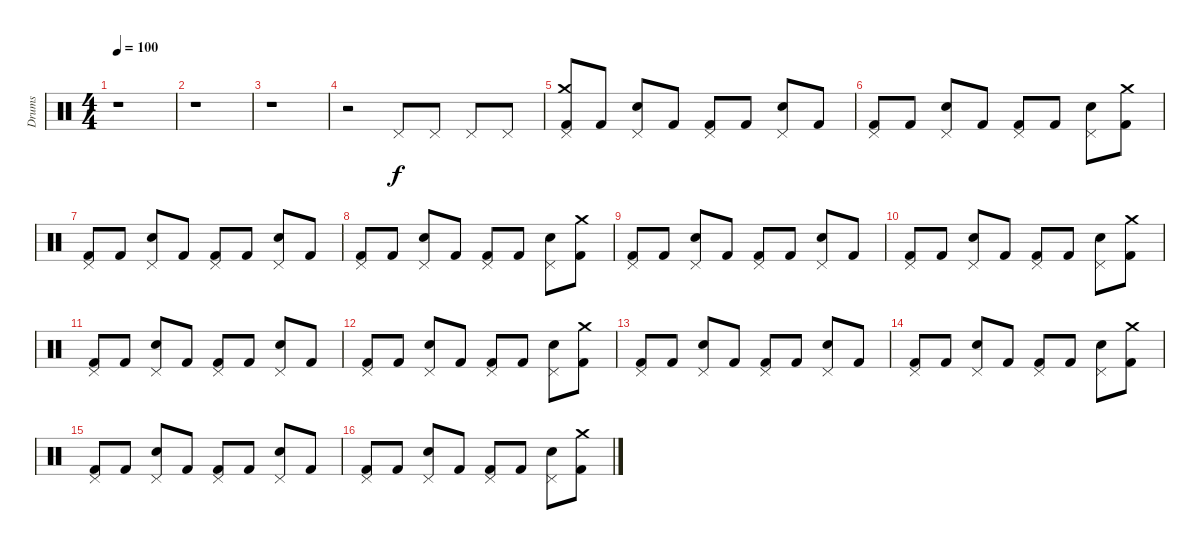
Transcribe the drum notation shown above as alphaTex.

\track ("Drums" "Drums") {instrument percussion}
\staff {score}
\articulation defaults
\ts (4 4)
\tempo 100
\clef neutral
\ks c
r.1{dy f} |
r.1 |
r.1 |
r.2 "Pedal Hi-Hat (hit)".8 "Pedal Hi-Hat (hit)".8 "Pedal Hi-Hat (hit)".8 "Pedal Hi-Hat (hit)".8 |
("Crash medium (hit)" "Pedal Hi-Hat (hit)" "Kick (hit) 2").8 "Kick (hit) 2".8 ("Pedal Hi-Hat (hit)" "Snare (hit) 2").8 "Kick (hit) 2".8 ("Pedal Hi-Hat (hit)" "Kick (hit) 2").8 "Kick (hit) 2".8 ("Pedal Hi-Hat (hit)" "Snare (hit) 2").8 "Kick (hit) 2".8 |
("Pedal Hi-Hat (hit)" "Kick (hit) 2").8 "Kick (hit) 2".8 ("Pedal Hi-Hat (hit)" "Snare (hit) 2").8 "Kick (hit) 2".8 ("Pedal Hi-Hat (hit)" "Kick (hit) 2").8 "Kick (hit) 2".8 ("Pedal Hi-Hat (hit)" "Snare (hit) 2").8 ("Crash medium (hit)" "Kick (hit) 2").8 |
("Pedal Hi-Hat (hit)" "Kick (hit) 2").8 "Kick (hit) 2".8 ("Pedal Hi-Hat (hit)" "Snare (hit) 2").8 "Kick (hit) 2".8 ("Pedal Hi-Hat (hit)" "Kick (hit) 2").8 "Kick (hit) 2".8 ("Pedal Hi-Hat (hit)" "Snare (hit) 2").8 "Kick (hit) 2".8 |
("Pedal Hi-Hat (hit)" "Kick (hit) 2").8 "Kick (hit) 2".8 ("Pedal Hi-Hat (hit)" "Snare (hit) 2").8 "Kick (hit) 2".8 ("Pedal Hi-Hat (hit)" "Kick (hit) 2").8 "Kick (hit) 2".8 ("Pedal Hi-Hat (hit)" "Snare (hit) 2").8 ("Crash medium (hit)" "Kick (hit) 2").8 |
("Pedal Hi-Hat (hit)" "Kick (hit) 2").8 "Kick (hit) 2".8 ("Pedal Hi-Hat (hit)" "Snare (hit) 2").8 "Kick (hit) 2".8 ("Pedal Hi-Hat (hit)" "Kick (hit) 2").8 "Kick (hit) 2".8 ("Pedal Hi-Hat (hit)" "Snare (hit) 2").8 "Kick (hit) 2".8 |
("Pedal Hi-Hat (hit)" "Kick (hit) 2").8 "Kick (hit) 2".8 ("Pedal Hi-Hat (hit)" "Snare (hit) 2").8 "Kick (hit) 2".8 ("Pedal Hi-Hat (hit)" "Kick (hit) 2").8 "Kick (hit) 2".8 ("Pedal Hi-Hat (hit)" "Snare (hit) 2").8 ("Crash medium (hit)" "Kick (hit) 2").8 |
("Pedal Hi-Hat (hit)" "Kick (hit) 2").8 "Kick (hit) 2".8 ("Pedal Hi-Hat (hit)" "Snare (hit) 2").8 "Kick (hit) 2".8 ("Pedal Hi-Hat (hit)" "Kick (hit) 2").8 "Kick (hit) 2".8 ("Pedal Hi-Hat (hit)" "Snare (hit) 2").8 "Kick (hit) 2".8 |
("Pedal Hi-Hat (hit)" "Kick (hit) 2").8 "Kick (hit) 2".8 ("Pedal Hi-Hat (hit)" "Snare (hit) 2").8 "Kick (hit) 2".8 ("Pedal Hi-Hat (hit)" "Kick (hit) 2").8 "Kick (hit) 2".8 ("Pedal Hi-Hat (hit)" "Snare (hit) 2").8 ("Crash medium (hit)" "Kick (hit) 2").8 |
("Pedal Hi-Hat (hit)" "Kick (hit) 2").8 "Kick (hit) 2".8 ("Pedal Hi-Hat (hit)" "Snare (hit) 2").8 "Kick (hit) 2".8 ("Pedal Hi-Hat (hit)" "Kick (hit) 2").8 "Kick (hit) 2".8 ("Pedal Hi-Hat (hit)" "Snare (hit) 2").8 "Kick (hit) 2".8 |
("Pedal Hi-Hat (hit)" "Kick (hit) 2").8 "Kick (hit) 2".8 ("Pedal Hi-Hat (hit)" "Snare (hit) 2").8 "Kick (hit) 2".8 ("Pedal Hi-Hat (hit)" "Kick (hit) 2").8 "Kick (hit) 2".8 ("Pedal Hi-Hat (hit)" "Snare (hit) 2").8 ("Crash medium (hit)" "Kick (hit) 2").8 |
("Pedal Hi-Hat (hit)" "Kick (hit) 2").8 "Kick (hit) 2".8 ("Pedal Hi-Hat (hit)" "Snare (hit) 2").8 "Kick (hit) 2".8 ("Pedal Hi-Hat (hit)" "Kick (hit) 2").8 "Kick (hit) 2".8 ("Pedal Hi-Hat (hit)" "Snare (hit) 2").8 "Kick (hit) 2".8 |
("Pedal Hi-Hat (hit)" "Kick (hit) 2").8 "Kick (hit) 2".8 ("Pedal Hi-Hat (hit)" "Snare (hit) 2").8 "Kick (hit) 2".8 ("Pedal Hi-Hat (hit)" "Kick (hit) 2").8 "Kick (hit) 2".8 ("Pedal Hi-Hat (hit)" "Snare (hit) 2").8 ("Crash medium (hit)" "Kick (hit) 2").8
